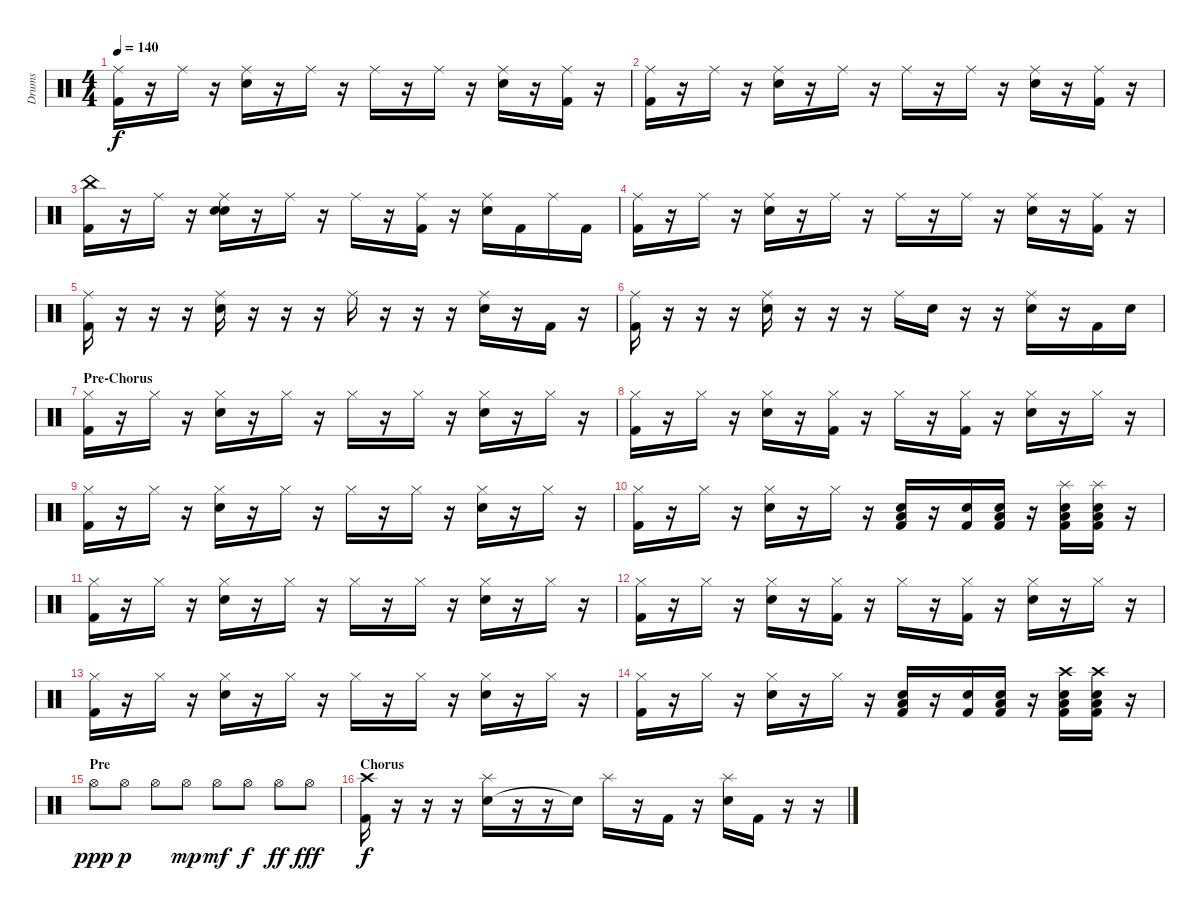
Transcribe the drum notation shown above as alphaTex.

\track ("Drums" "Drums") {instrument percussion}
\staff {score}
\articulation defaults
\ts (4 4)
\tempo 140
\clef neutral
\ks c
("Kick (hit) 2" "Ride (middle)").16{dy f} r.16 "Ride (middle)".16 r.16 ("Snare (hit) 2" "Ride (middle)").16 r.16 "Ride (middle)".16 r.16 "Ride (middle)".16 r.16 "Ride (middle)".16 r.16 ("Snare (hit) 2" "Ride (middle)").16 r.16 ("Kick (hit) 2" "Ride (middle)").16 r.16 |
("Kick (hit) 2" "Ride (middle)").16 r.16 "Ride (middle)".16 r.16 ("Snare (hit) 2" "Ride (middle)").16 r.16 "Ride (middle)".16 r.16 "Ride (middle)".16 r.16 "Ride (middle)".16 r.16 ("Snare (hit) 2" "Ride (middle)").16 r.16 ("Kick (hit) 2" "Ride (middle)").16 r.16 |
("Kick (hit) 2" "China (hit)").16 r.16 "Ride (middle)".16 r.16 ("Snare (hit) 2" "Ride (middle)" "Snare (hit)").16 r.16 "Ride (middle)".16 r.16 "Ride (middle)".16 r.16 ("Kick (hit) 2" "Ride (middle)").16 r.16 ("Snare (hit) 2" "Ride (middle)").16 "Kick (hit) 2".16 "Ride (middle)".16 "Kick (hit) 2".16 |
("Kick (hit) 2" "Ride (middle)").16 r.16 "Ride (middle)".16 r.16 ("Snare (hit) 2" "Ride (middle)").16 r.16 "Ride (middle)".16 r.16 "Ride (middle)".16 r.16 "Ride (middle)".16 r.16 ("Snare (hit) 2" "Ride (middle)").16 r.16 ("Kick (hit) 2" "Ride (middle)").16 r.16 |
("Kick (hit) 2" "Ride (middle)").16 r.16 r.16 r.16 ("Snare (hit) 2" "Ride (middle)").16 r.16 r.16 r.16 "Ride (middle)".16 r.16 r.16 r.16 ("Snare (hit) 2" "Ride (middle)").16 r.16 "Kick (hit) 2".16 r.16 |
("Kick (hit) 2" "Ride (middle)").16 r.16 r.16 r.16 ("Snare (hit) 2" "Ride (middle)").16 r.16 r.16 r.16 "Ride (middle)".16 "Snare (hit) 2".16 r.16 r.16 ("Snare (hit) 2" "Ride (middle)").16 r.16 "Kick (hit) 2".16 "Snare (hit) 2".16 |
\section ("" "Pre-Chorus")
("Kick (hit) 2" "Hi-Hat (closed)").16 r.16 "Hi-Hat (closed)".16 r.16 ("Snare (hit) 2" "Hi-Hat (closed)").16 r.16 "Hi-Hat (closed)".16 r.16 "Hi-Hat (closed)".16 r.16 "Hi-Hat (closed)".16 r.16 ("Snare (hit) 2" "Hi-Hat (closed)").16 r.16 "Hi-Hat (closed)".16 r.16 |
("Kick (hit) 2" "Hi-Hat (closed)").16 r.16 "Hi-Hat (closed)".16 r.16 ("Snare (hit) 2" "Hi-Hat (closed)").16 r.16 ("Kick (hit) 2" "Hi-Hat (closed)").16 r.16 "Hi-Hat (closed)".16 r.16 ("Kick (hit) 2" "Hi-Hat (closed)").16 r.16 ("Snare (hit) 2" "Hi-Hat (closed)").16 r.16 "Hi-Hat (closed)".16 r.16 |
("Kick (hit) 2" "Hi-Hat (closed)").16 r.16 "Hi-Hat (closed)".16 r.16 ("Snare (hit) 2" "Hi-Hat (closed)").16 r.16 "Hi-Hat (closed)".16 r.16 "Hi-Hat (closed)".16 r.16 "Hi-Hat (closed)".16 r.16 ("Snare (hit) 2" "Hi-Hat (closed)").16 r.16 "Hi-Hat (closed)".16 r.16 |
("Kick (hit) 2" "Hi-Hat (closed)").16 r.16 "Hi-Hat (closed)".16 r.16 ("Snare (hit) 2" "Hi-Hat (closed)").16 r.16 "Hi-Hat (closed)".16 r.16 ("Kick (hit) 2" "Snare (hit) 2" "Low Tom (hit)").16 r.16 ("Kick (hit) 2" "Snare (hit) 2").16 ("Kick (hit) 2" "Snare (hit) 2" "Low Tom (hit)").16 r.16 ("Kick (hit) 2" "Snare (hit) 2" "Low Tom (hit)" "Splash (hit)").16 ("Kick (hit) 2" "Snare (hit) 2" "Low Tom (hit)" "Splash (hit)").16 r.16 |
("Kick (hit) 2" "Hi-Hat (closed)").16 r.16 "Hi-Hat (closed)".16 r.16 ("Snare (hit) 2" "Hi-Hat (closed)").16 r.16 "Hi-Hat (closed)".16 r.16 "Hi-Hat (closed)".16 r.16 "Hi-Hat (closed)".16 r.16 ("Snare (hit) 2" "Hi-Hat (closed)").16 r.16 "Hi-Hat (closed)".16 r.16 |
("Kick (hit) 2" "Hi-Hat (closed)").16 r.16 "Hi-Hat (closed)".16 r.16 ("Snare (hit) 2" "Hi-Hat (closed)").16 r.16 ("Kick (hit) 2" "Hi-Hat (closed)").16 r.16 "Hi-Hat (closed)".16 r.16 ("Kick (hit) 2" "Hi-Hat (closed)").16 r.16 ("Snare (hit) 2" "Hi-Hat (closed)").16 r.16 "Hi-Hat (closed)".16 r.16 |
("Kick (hit) 2" "Hi-Hat (closed)").16 r.16 "Hi-Hat (closed)".16 r.16 ("Snare (hit) 2" "Hi-Hat (closed)").16 r.16 "Hi-Hat (closed)".16 r.16 "Hi-Hat (closed)".16 r.16 "Hi-Hat (closed)".16 r.16 ("Snare (hit) 2" "Hi-Hat (closed)").16 r.16 "Hi-Hat (closed)".16 r.16 |
("Kick (hit) 2" "Hi-Hat (closed)").16 r.16 "Hi-Hat (closed)".16 r.16 ("Snare (hit) 2" "Hi-Hat (closed)").16 r.16 "Hi-Hat (closed)".16 r.16 ("Kick (hit) 2" "Snare (hit) 2" "Low Tom (hit)").16 r.16 ("Kick (hit) 2" "Snare (hit) 2").16 ("Kick (hit) 2" "Snare (hit) 2" "Low Tom (hit)").16 r.16 ("Kick (hit) 2" "Snare (hit) 2" "Low Tom (hit)" "Crash high (hit)").16 ("Kick (hit) 2" "Snare (hit) 2" "Low Tom (hit)" "Crash high (hit)").16 r.16 |
\section ("" "Pre")
"Hi-Hat (open)".8{dy ppp} "Hi-Hat (open)".8{dy p} "Hi-Hat (open)".8 "Hi-Hat (open)".8{dy mp} "Hi-Hat (open)".8{dy mf} "Hi-Hat (open)".8{dy f} "Hi-Hat (open)".8{dy ff} "Hi-Hat (open)".8{dy fff} |
\section ("" "Chorus")
("Kick (hit) 2" "Crash high (hit)").16{dy f} r.16 r.16 r.16 ("Snare (hit) 2" "Splash (hit)").16 r.16 r.16 "Snare (hit)"{t}.16 "Splash (hit)".16 r.16 "Kick (hit) 2".16 r.16 ("Snare (hit) 2" "Splash (hit)").16 "Kick (hit) 2".16 r.16 r.16
